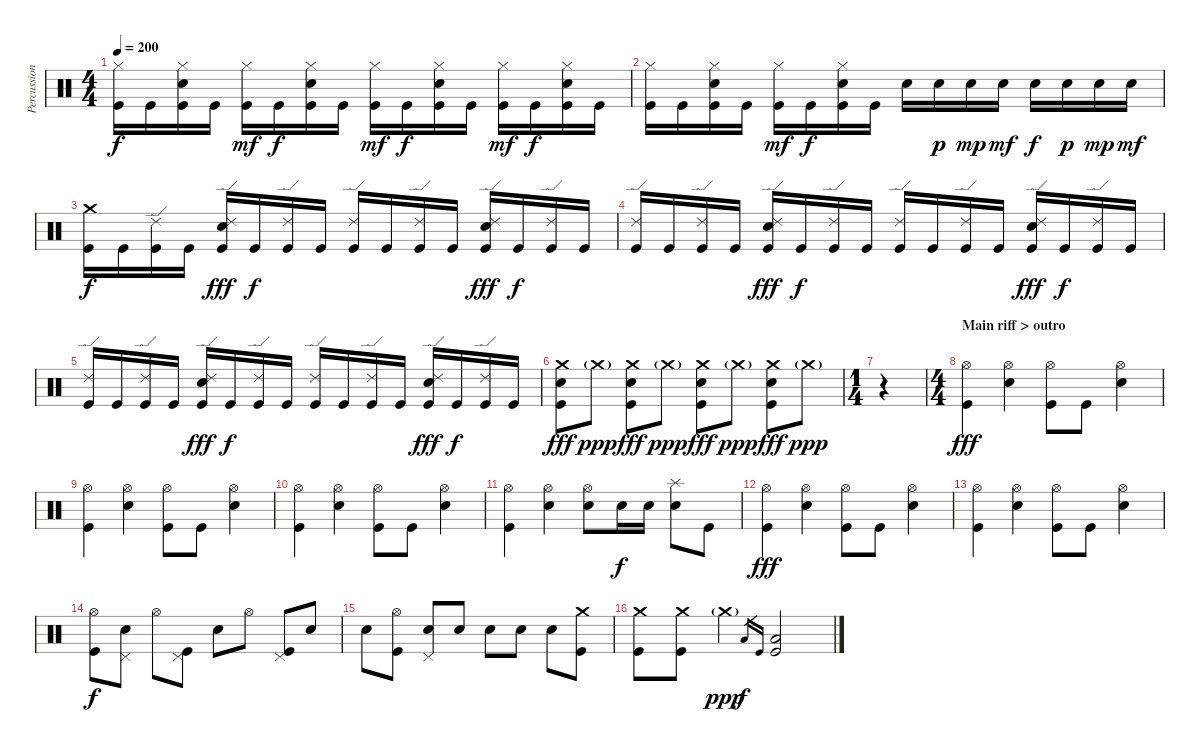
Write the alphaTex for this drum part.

\track ("Percussion" "Percussion") {instrument percussion}
\staff {score}
\articulation defaults
\ts (4 4)
\tempo 200
\clef neutral
\ks c
("Hi-Hat (closed)" "Kick (hit)").16{dy f} "Kick (hit)".16 ("Hi-Hat (closed)" "Electric Snare (hit)" "Kick (hit)").16 "Kick (hit)".16 ("Hi-Hat (closed)" "Kick (hit)").16{dy mf} "Kick (hit)".16{dy f} ("Hi-Hat (closed)" "Electric Snare (hit)" "Kick (hit)").16 "Kick (hit)".16 ("Hi-Hat (closed)" "Kick (hit)").16{dy mf} "Kick (hit)".16{dy f} ("Hi-Hat (closed)" "Electric Snare (hit)" "Kick (hit)").16 "Kick (hit)".16 ("Hi-Hat (closed)" "Kick (hit)").16{dy mf} "Kick (hit)".16{dy f} ("Hi-Hat (closed)" "Electric Snare (hit)" "Kick (hit)").16 "Kick (hit)".16 |
("Hi-Hat (closed)" "Kick (hit)").16 "Kick (hit)".16 ("Hi-Hat (closed)" "Electric Snare (hit)" "Kick (hit)").16 "Kick (hit)".16 ("Hi-Hat (closed)" "Kick (hit)").16{dy mf} "Kick (hit)".16{dy f} ("Hi-Hat (closed)" "Electric Snare (hit)" "Kick (hit)").16 "Kick (hit)".16 "Electric Snare (hit)".16 "Electric Snare (hit)".16{dy p} "Electric Snare (hit)".16{dy mp} "Electric Snare (hit)".16{dy mf} "Electric Snare (hit)".16{dy f} "Electric Snare (hit)".16{dy p} "Electric Snare (hit)".16{dy mp} "Electric Snare (hit)".16{dy mf} |
("Crash medium (hit)" "Kick (hit)").16{dy f} "Kick (hit)".16 ("Ride (edge) 2" "Kick (hit)").16 "Kick (hit)".16 ("Ride (edge) 2" "Electric Snare (hit)" "Kick (hit)").16{dy fff} "Kick (hit)".16{dy f} ("Ride (edge) 2" "Kick (hit)").16 "Kick (hit)".16 ("Ride (edge) 2" "Kick (hit)").16 "Kick (hit)".16 ("Ride (edge) 2" "Kick (hit)").16 "Kick (hit)".16 ("Ride (edge) 2" "Electric Snare (hit)" "Kick (hit)").16{dy fff} "Kick (hit)".16{dy f} ("Ride (edge) 2" "Kick (hit)").16 "Kick (hit)".16 |
("Ride (edge) 2" "Kick (hit)").16 "Kick (hit)".16 ("Ride (edge) 2" "Kick (hit)").16 "Kick (hit)".16 ("Ride (edge) 2" "Electric Snare (hit)" "Kick (hit)").16{dy fff} "Kick (hit)".16{dy f} ("Ride (edge) 2" "Kick (hit)").16 "Kick (hit)".16 ("Ride (edge) 2" "Kick (hit)").16 "Kick (hit)".16 ("Ride (edge) 2" "Kick (hit)").16 "Kick (hit)".16 ("Ride (edge) 2" "Electric Snare (hit)" "Kick (hit)").16{dy fff} "Kick (hit)".16{dy f} ("Ride (edge) 2" "Kick (hit)").16 "Kick (hit)".16 |
("Ride (edge) 2" "Kick (hit)").16 "Kick (hit)".16 ("Ride (edge) 2" "Kick (hit)").16 "Kick (hit)".16 ("Ride (edge) 2" "Electric Snare (hit)" "Kick (hit)").16{dy fff} "Kick (hit)".16{dy f} ("Ride (edge) 2" "Kick (hit)").16 "Kick (hit)".16 ("Ride (edge) 2" "Kick (hit)").16 "Kick (hit)".16 ("Ride (edge) 2" "Kick (hit)").16 "Kick (hit)".16 ("Ride (edge) 2" "Electric Snare (hit)" "Kick (hit)").16{dy fff} "Kick (hit)".16{dy f} ("Ride (edge) 2" "Kick (hit)").16 "Kick (hit)".16 |
("Crash medium (hit)" "Electric Snare (hit)" "Kick (hit)").8{dy fff} "Crash medium (hit)"{g}.8{dy ppp} ("Crash medium (hit)" "Electric Snare (hit)" "Kick (hit)").8{dy fff} "Crash medium (hit)"{g}.8{dy ppp} ("Crash medium (hit)" "Electric Snare (hit)" "Kick (hit)").8{dy fff} "Crash medium (hit)"{g}.8{dy ppp} ("Crash medium (hit)" "Electric Snare (hit)" "Kick (hit)").8{dy fff} "Crash medium (hit)"{g}.8{dy ppp} |
\ts (1 4)
r.4 |
\ts (4 4)
\section ("" "Main riff > outro")
("Hi-Hat (open)" "Kick (hit)").4{dy fff} ("Hi-Hat (open)" "Electric Snare (hit)").4 ("Hi-Hat (open)" "Kick (hit)").8 "Kick (hit)".8 ("Hi-Hat (open)" "Electric Snare (hit)").4 |
("Hi-Hat (open)" "Kick (hit)").4 ("Hi-Hat (open)" "Electric Snare (hit)").4 ("Hi-Hat (open)" "Kick (hit)").8 "Kick (hit)".8 ("Hi-Hat (open)" "Electric Snare (hit)").4 |
("Hi-Hat (open)" "Kick (hit)").4 ("Hi-Hat (open)" "Electric Snare (hit)").4 ("Hi-Hat (open)" "Kick (hit)").8 "Kick (hit)".8 ("Hi-Hat (open)" "Electric Snare (hit)").4 |
("Hi-Hat (open)" "Kick (hit)").4 ("Hi-Hat (open)" "Electric Snare (hit)").4 ("Hi-Hat (open)" "Electric Snare (hit)").8 "Electric Snare (hit)".16{dy f} "Electric Snare (hit)".16 ("Splash (hit)" "Electric Snare (hit)").8 "Kick (hit)".8 |
("Hi-Hat (open)" "Kick (hit)").4{dy fff} ("Hi-Hat (open)" "Electric Snare (hit)").4 ("Hi-Hat (open)" "Kick (hit)").8 "Kick (hit)".8 ("Hi-Hat (open)" "Electric Snare (hit)").4 |
("Hi-Hat (open)" "Kick (hit)").4 ("Hi-Hat (open)" "Electric Snare (hit)").4 ("Hi-Hat (open)" "Kick (hit)").8 "Kick (hit)".8 ("Hi-Hat (open)" "Electric Snare (hit)").4 |
("Hi-Hat (open)" "Kick (hit)").8{dy f} ("Pedal Hi-Hat (hit)" "Electric Snare (hit)").8 "Hi-Hat (open)".8 ("Pedal Hi-Hat (hit)" "Kick (hit)").8 "Electric Snare (hit)".8 "Hi-Hat (open)".8 ("Pedal Hi-Hat (hit)" "Kick (hit)").8 "Electric Snare (hit)".8 |
"Electric Snare (hit)".8 ("Hi-Hat (open)" "Kick (hit)").8 ("Pedal Hi-Hat (hit)" "Electric Snare (hit)").8 "Electric Snare (hit)".8 "Electric Snare (hit)".8 "Electric Snare (hit)".8 "Electric Snare (hit)".8 ("Crash medium (hit)" "Kick (hit)").8 |
("Crash medium (hit)" "Kick (hit)").8 ("Crash medium (hit)" "Kick (hit)").8 "Crash medium (hit)"{g}.4{dy ppp} "Low Tom (hit)".16{gr dy f} "Kick (hit)".16{gr} ("Low Tom (hit)" "Kick (hit)").2
